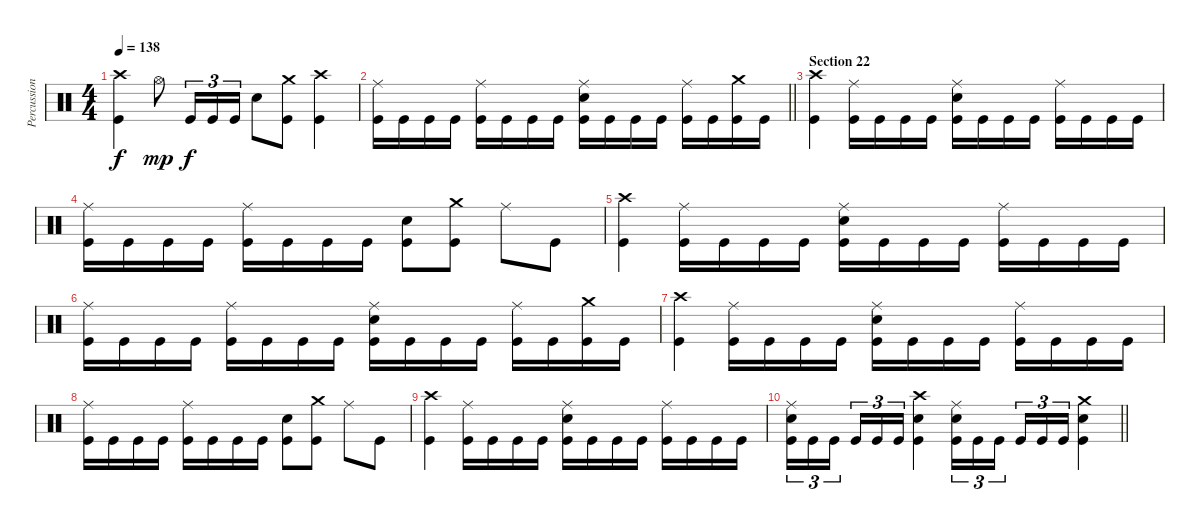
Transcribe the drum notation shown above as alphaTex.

\track ("Percussion" "Percussion") {instrument percussion}
\staff {score}
\articulation defaults
\ts (4 4)
\tempo 138
\clef neutral
\ks c
("Crash high (hit)" "Kick (hit)").4{dy f} "Hi-Hat (open)".8{dy mp} "Kick (hit)".16{tu (3 2) dy f} "Kick (hit)".16{tu (3 2)} "Kick (hit)".16{tu (3 2)} "Electric Snare (hit)".8 ("Crash medium (hit)" "Kick (hit)").8 ("Crash high (hit)" "Kick (hit)").4 |
\barLineRight lightlight
("Ride (middle)" "Kick (hit)").16 "Kick (hit)".16 "Kick (hit)".16 "Kick (hit)".16 ("Ride (middle)" "Kick (hit)").16 "Kick (hit)".16 "Kick (hit)".16 "Kick (hit)".16 ("Ride (middle)" "Electric Snare (hit)" "Kick (hit)").16 "Kick (hit)".16 "Kick (hit)".16 "Kick (hit)".16 ("Ride (middle)" "Kick (hit)").16 "Kick (hit)".16 ("Crash medium (hit)" "Kick (hit)").16 "Kick (hit)".16 |
\section ("" "Section 22")
("Crash high (hit)" "Kick (hit)").4 ("Ride (middle)" "Kick (hit)").16 "Kick (hit)".16 "Kick (hit)".16 "Kick (hit)".16 ("Ride (middle)" "Electric Snare (hit)" "Kick (hit)").16 "Kick (hit)".16 "Kick (hit)".16 "Kick (hit)".16 ("Ride (middle)" "Kick (hit)").16 "Kick (hit)".16 "Kick (hit)".16 "Kick (hit)".16 |
("Ride (middle)" "Kick (hit)").16 "Kick (hit)".16 "Kick (hit)".16 "Kick (hit)".16 ("Ride (middle)" "Kick (hit)").16 "Kick (hit)".16 "Kick (hit)".16 "Kick (hit)".16 ("Electric Snare (hit)" "Kick (hit)").8 ("Crash medium (hit)" "Kick (hit)").8 "Ride (middle)".8 "Kick (hit)".8 |
("Crash high (hit)" "Kick (hit)").4 ("Ride (middle)" "Kick (hit)").16 "Kick (hit)".16 "Kick (hit)".16 "Kick (hit)".16 ("Ride (middle)" "Electric Snare (hit)" "Kick (hit)").16 "Kick (hit)".16 "Kick (hit)".16 "Kick (hit)".16 ("Ride (middle)" "Kick (hit)").16 "Kick (hit)".16 "Kick (hit)".16 "Kick (hit)".16 |
("Ride (middle)" "Kick (hit)").16 "Kick (hit)".16 "Kick (hit)".16 "Kick (hit)".16 ("Ride (middle)" "Kick (hit)").16 "Kick (hit)".16 "Kick (hit)".16 "Kick (hit)".16 ("Ride (middle)" "Electric Snare (hit)" "Kick (hit)").16 "Kick (hit)".16 "Kick (hit)".16 "Kick (hit)".16 ("Ride (middle)" "Kick (hit)").16 "Kick (hit)".16 ("Crash medium (hit)" "Kick (hit)").16 "Kick (hit)".16 |
("Crash high (hit)" "Kick (hit)").4 ("Ride (middle)" "Kick (hit)").16 "Kick (hit)".16 "Kick (hit)".16 "Kick (hit)".16 ("Ride (middle)" "Electric Snare (hit)" "Kick (hit)").16 "Kick (hit)".16 "Kick (hit)".16 "Kick (hit)".16 ("Ride (middle)" "Kick (hit)").16 "Kick (hit)".16 "Kick (hit)".16 "Kick (hit)".16 |
("Ride (middle)" "Kick (hit)").16 "Kick (hit)".16 "Kick (hit)".16 "Kick (hit)".16 ("Ride (middle)" "Kick (hit)").16 "Kick (hit)".16 "Kick (hit)".16 "Kick (hit)".16 ("Electric Snare (hit)" "Kick (hit)").8 ("Crash medium (hit)" "Kick (hit)").8 "Ride (middle)".8 "Kick (hit)".8 |
("Crash high (hit)" "Kick (hit)").4 ("Ride (middle)" "Kick (hit)").16 "Kick (hit)".16 "Kick (hit)".16 "Kick (hit)".16 ("Ride (middle)" "Electric Snare (hit)" "Kick (hit)").16 "Kick (hit)".16 "Kick (hit)".16 "Kick (hit)".16 ("Ride (middle)" "Kick (hit)").16 "Kick (hit)".16 "Kick (hit)".16 "Kick (hit)".16 |
\barLineRight lightlight
("Ride (middle)" "Electric Snare (hit)" "Kick (hit)").16{tu (3 2)} "Kick (hit)".16{tu (3 2)} "Kick (hit)".16{tu (3 2) beam splitsecondary} "Kick (hit)".16{tu (3 2)} "Kick (hit)".16{tu (3 2)} "Kick (hit)".16{tu (3 2)} ("Crash high (hit)" "Electric Snare (hit)" "Kick (hit)").4 ("Ride (middle)" "Electric Snare (hit)" "Kick (hit)").16{tu (3 2)} "Kick (hit)".16{tu (3 2)} "Kick (hit)".16{tu (3 2) beam splitsecondary} "Kick (hit)".16{tu (3 2)} "Kick (hit)".16{tu (3 2)} "Kick (hit)".16{tu (3 2)} ("Crash medium (hit)" "Electric Snare (hit)" "Kick (hit)").4
